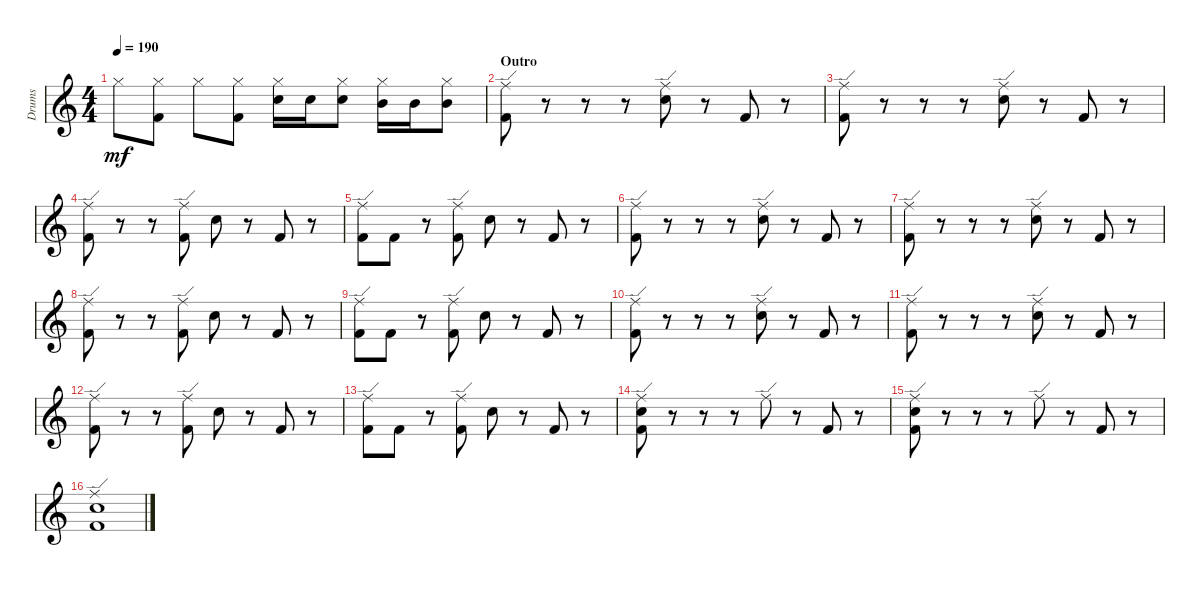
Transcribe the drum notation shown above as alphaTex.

\defaultSystemsLayout 4
\bracketExtendMode groupsimilarinstruments
\otherSystemsTrackNameOrientation horizontal
\track ("Prakarsh" "Drums") {instrument percussion}
\staff {score}
\articulation defaults
\ts (4 4)
\tempo 190
\clef g2
\ks c "Hi-Hat (closed)".8{dy mf beam Down}
("Hi-Hat (closed)" "Kick (hit) 2").8{beam Down} "Hi-Hat (closed)".8{beam Down} ("Hi-Hat (closed)" "Kick (hit) 2").8{beam Down} ("Hi-Hat (closed)" "Snare (hit) 2").16{beam Down} "Snare (hit) 2".16{beam Down} ("Hi-Hat (closed)" "Snare (hit) 2").8{beam Down} ("Hi-Hat (closed)" "Mid Tom (hit)").16{beam Down} "Mid Tom (hit)".16{beam Down} ("Hi-Hat (closed)" "Mid Tom (hit)").8{beam Down} |
\section ("" "Outro")
("Ride (edge)" "Kick (hit) 2").8{beam Down} r.8{beam Down} r.8{beam Down} r.8{beam Down} ("Ride (edge)" "Snare (hit) 2").8{beam Down} r.8{beam Down} "Kick (hit) 2".8{beam Up} r.8{beam Up} |
("Ride (edge)" "Kick (hit) 2").8{beam Down} r.8{beam Down} r.8{beam Down} r.8{beam Down} ("Ride (edge)" "Snare (hit) 2").8{beam Down} r.8{beam Down} "Kick (hit) 2".8{beam Up} r.8{beam Up} |
("Kick (hit) 2" "Ride (edge)").8{beam Down} r.8{beam Down} r.8{beam Down} ("Kick (hit) 2" "Ride (edge)").8{beam Down} "Snare (hit) 2".8{beam Down} r.8{beam Down} "Kick (hit) 2".8{beam Up} r.8{beam Up} |
("Kick (hit) 2" "Ride (edge)").8{beam Down} "Kick (hit) 2".8{beam Down} r.8{beam Down} ("Kick (hit) 2" "Ride (edge)").8{beam Down} "Snare (hit) 2".8{beam Down} r.8{beam Down} "Kick (hit) 2".8{beam Up} r.8{beam Up} |
("Ride (edge)" "Kick (hit) 2").8{beam Down} r.8{beam Down} r.8{beam Down} r.8{beam Down} ("Ride (edge)" "Snare (hit) 2").8{beam Down} r.8{beam Down} "Kick (hit) 2".8{beam Up} r.8{beam Up} |
("Ride (edge)" "Kick (hit) 2").8{beam Down} r.8{beam Down} r.8{beam Down} r.8{beam Down} ("Ride (edge)" "Snare (hit) 2").8{beam Down} r.8{beam Down} "Kick (hit) 2".8{beam Up} r.8{beam Up} |
("Kick (hit) 2" "Ride (edge)").8{beam Down} r.8{beam Down} r.8{beam Down} ("Kick (hit) 2" "Ride (edge)").8{beam Down} "Snare (hit) 2".8{beam Down} r.8{beam Down} "Kick (hit) 2".8{beam Up} r.8{beam Up} |
("Kick (hit) 2" "Ride (edge)").8{beam Down} "Kick (hit) 2".8{beam Down} r.8{beam Down} ("Kick (hit) 2" "Ride (edge)").8{beam Down} "Snare (hit) 2".8{beam Down} r.8{beam Down} "Kick (hit) 2".8{beam Up} r.8{beam Up} |
("Ride (edge)" "Kick (hit) 2").8{beam Down} r.8{beam Down} r.8{beam Down} r.8{beam Down} ("Ride (edge)" "Snare (hit) 2").8{beam Down} r.8{beam Down} "Kick (hit) 2".8{beam Up} r.8{beam Up} |
("Ride (edge)" "Kick (hit) 2").8{beam Down} r.8{beam Down} r.8{beam Down} r.8{beam Down} ("Ride (edge)" "Snare (hit) 2").8{beam Down} r.8{beam Down} "Kick (hit) 2".8{beam Up} r.8{beam Up} |
("Kick (hit) 2" "Ride (edge)").8{beam Down} r.8{beam Down} r.8{beam Down} ("Kick (hit) 2" "Ride (edge)").8{beam Down} "Snare (hit) 2".8{beam Down} r.8{beam Down} "Kick (hit) 2".8{beam Up} r.8{beam Up} |
("Kick (hit) 2" "Ride (edge)").8{beam Down} "Kick (hit) 2".8{beam Down} r.8{beam Down} ("Kick (hit) 2" "Ride (edge)").8{beam Down} "Snare (hit) 2".8{beam Down} r.8{beam Down} "Kick (hit) 2".8{beam Up} r.8{beam Up} |
("Ride (edge)" "Kick (hit) 2" "Snare (hit) 2").8{beam Down} r.8{beam Down} r.8{beam Down} r.8{beam Down} "Ride (edge)".8{beam Down} r.8{beam Down} "Kick (hit) 2".8{beam Up} r.8{beam Up} |
("Snare (hit) 2" "Ride (edge)" "Kick (hit) 2").8{beam Down} r.8{beam Down} r.8{beam Down} r.8{beam Down} "Ride (edge)".8{beam Down} r.8{beam Down} "Kick (hit) 2".8{beam Up} r.8{beam Up} |
("Kick (hit) 2" "Snare (hit) 2" "Ride (edge)").1{beam Down}
